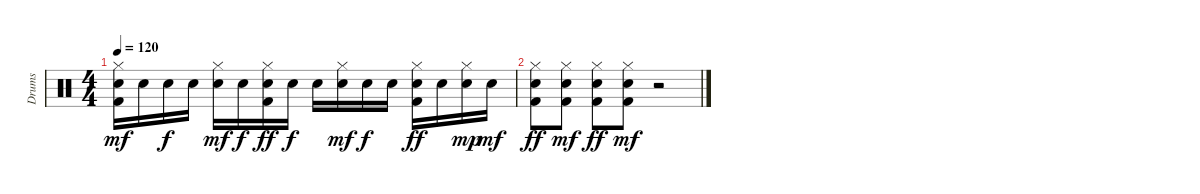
\track ("Drums" "Drums") {instrument percussion}
\staff {score}
\articulation defaults
\ts (4 4)
\tempo 120
\clef neutral
\ks c
("Kick (hit) 2" "Electric Snare (hit)" "Hi-Hat (closed)").16{dy mf} "Electric Snare (hit)".16 "Electric Snare (hit)".16{dy f} "Electric Snare (hit)".16 ("Electric Snare (hit)" "Hi-Hat (closed)").16{dy mf} "Electric Snare (hit)".16{dy f} ("Kick (hit) 2" "Electric Snare (hit)" "Hi-Hat (closed)").16{dy ff} "Electric Snare (hit)".16{dy f} "Electric Snare (hit)".16 ("Electric Snare (hit)" "Hi-Hat (closed)").16{dy mf} "Electric Snare (hit)".16{dy f} "Electric Snare (hit)".16 ("Kick (hit) 2" "Electric Snare (hit)" "Hi-Hat (closed)").16{dy ff} "Electric Snare (hit)".16 ("Electric Snare (hit)" "Hi-Hat (closed)").16{dy mp} "Electric Snare (hit)".16{dy mf} |
("Kick (hit) 2" "Electric Snare (hit)" "Hi-Hat (closed)").8{dy ff} ("Kick (hit) 2" "Electric Snare (hit)" "Hi-Hat (closed)").8{dy mf} ("Kick (hit) 2" "Electric Snare (hit)" "Hi-Hat (closed)").8{dy ff} ("Kick (hit) 2" "Electric Snare (hit)" "Hi-Hat (closed)").8{dy mf} r.2
